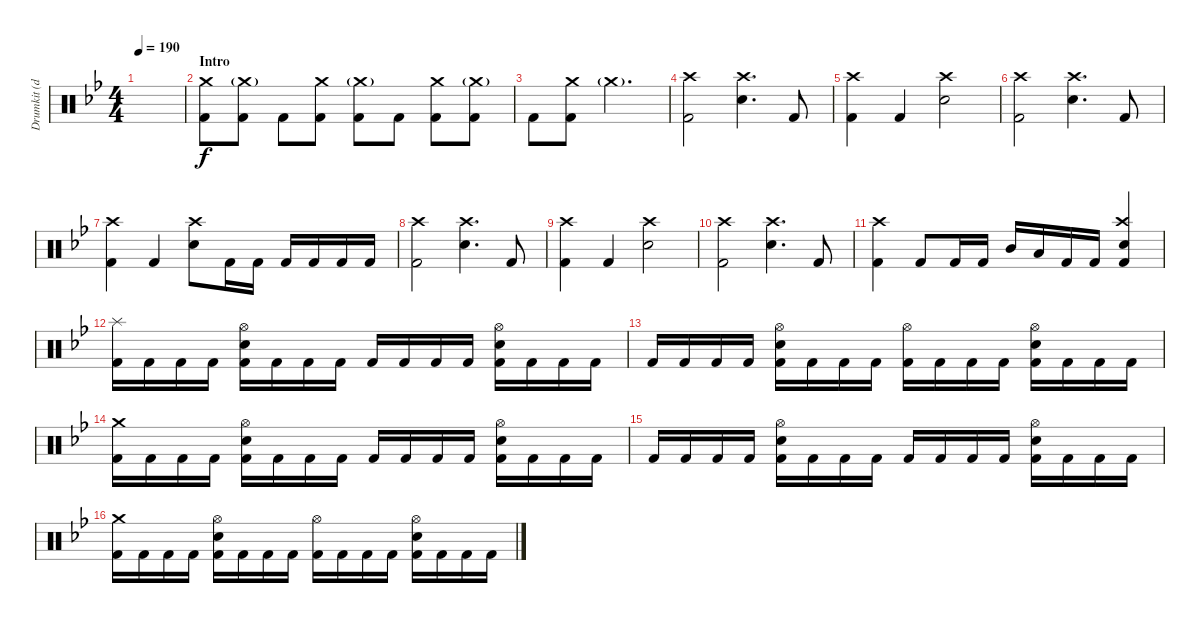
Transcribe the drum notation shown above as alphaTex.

\track ("Drumkit (don't unmute)" "Drumkit (d") {instrument percussion}
\staff {score}
\articulation defaults
\ts (4 4)
\tempo 190
\clef neutral
\ks bb
|
\section ("" "Intro")
("Kick (hit) 2" "Crash medium (hit)").8 ("Kick (hit) 2" "Crash medium (hit)"{g}).8 "Kick (hit) 2".8 ("Kick (hit) 2" "Crash medium (hit)").8 ("Kick (hit) 2" "Crash medium (hit)"{g}).8 "Kick (hit) 2".8 ("Kick (hit) 2" "Crash medium (hit)").8 ("Kick (hit) 2" "Crash medium (hit)"{g}).8 |
"Kick (hit) 2".8 ("Kick (hit) 2" "Crash medium (hit)").8 "Crash medium (hit)"{g}.2{d} |
("Kick (hit) 2" "Crash high (hit)").2 ("Snare (hit) 2" "Crash high (hit)").4{d} "Kick (hit) 2".8 |
("Kick (hit) 2" "Crash high (hit)").4 "Kick (hit) 2".4 ("Snare (hit) 2" "Crash high (hit)").2 |
("Kick (hit) 2" "Crash high (hit)").2 ("Snare (hit) 2" "Crash high (hit)").4{d} "Kick (hit) 2".8 |
("Kick (hit) 2" "Crash high (hit)").4 "Kick (hit) 2".4 ("Snare (hit) 2" "Crash high (hit)").8 "Kick (hit) 2".16 "Kick (hit) 2".16 "Kick (hit) 2".16 "Kick (hit) 2".16 "Kick (hit) 2".16 "Kick (hit) 2".16 |
("Kick (hit) 2" "Crash high (hit)").2 ("Snare (hit) 2" "Crash high (hit)").4{d} "Kick (hit) 2".8 |
("Kick (hit) 2" "Crash high (hit)").4 "Kick (hit) 2".4 ("Snare (hit) 2" "Crash high (hit)").2 |
("Kick (hit) 2" "Crash high (hit)").2 ("Snare (hit) 2" "Crash high (hit)").4{d} "Kick (hit) 2".8 |
("Kick (hit) 2" "Crash high (hit)").4 "Kick (hit) 2".8 "Kick (hit) 2".16 "Kick (hit) 2".16 "Mid Tom (hit)".16 "Low Tom (hit)".16 "Kick (hit) 2".16 "Kick (hit) 2".16 ("Kick (hit) 2" "Snare (hit) 2" "Crash high (hit)").4 |
("Kick (hit) 2" "Splash (hit)").16 "Kick (hit) 2".16 "Kick (hit) 2".16 "Kick (hit) 2".16 ("Kick (hit) 2" "Snare (hit) 2" "Hi-Hat (open)").16 "Kick (hit) 2".16 "Kick (hit) 2".16 "Kick (hit) 2".16 "Kick (hit) 2".16 "Kick (hit) 2".16 "Kick (hit) 2".16 "Kick (hit) 2".16 ("Kick (hit) 2" "Hi-Hat (open)" "Snare (hit) 2").16 "Kick (hit) 2".16 "Kick (hit) 2".16 "Kick (hit) 2".16 |
"Kick (hit) 2".16 "Kick (hit) 2".16 "Kick (hit) 2".16 "Kick (hit) 2".16 ("Kick (hit) 2" "Snare (hit) 2" "Hi-Hat (open)").16 "Kick (hit) 2".16 "Kick (hit) 2".16 "Kick (hit) 2".16 ("Kick (hit) 2" "Hi-Hat (open)").16 "Kick (hit) 2".16 "Kick (hit) 2".16 "Kick (hit) 2".16 ("Kick (hit) 2" "Hi-Hat (open)" "Snare (hit) 2").16 "Kick (hit) 2".16 "Kick (hit) 2".16 "Kick (hit) 2".16 |
("Kick (hit) 2" "Crash medium (hit)").16 "Kick (hit) 2".16 "Kick (hit) 2".16 "Kick (hit) 2".16 ("Kick (hit) 2" "Snare (hit) 2" "Hi-Hat (open)").16 "Kick (hit) 2".16 "Kick (hit) 2".16 "Kick (hit) 2".16 "Kick (hit) 2".16 "Kick (hit) 2".16 "Kick (hit) 2".16 "Kick (hit) 2".16 ("Kick (hit) 2" "Hi-Hat (open)" "Snare (hit) 2").16 "Kick (hit) 2".16 "Kick (hit) 2".16 "Kick (hit) 2".16 |
"Kick (hit) 2".16 "Kick (hit) 2".16 "Kick (hit) 2".16 "Kick (hit) 2".16 ("Kick (hit) 2" "Snare (hit) 2" "Hi-Hat (open)").16 "Kick (hit) 2".16 "Kick (hit) 2".16 "Kick (hit) 2".16 "Kick (hit) 2".16 "Kick (hit) 2".16 "Kick (hit) 2".16 "Kick (hit) 2".16 ("Kick (hit) 2" "Hi-Hat (open)" "Snare (hit) 2").16 "Kick (hit) 2".16 "Kick (hit) 2".16 "Kick (hit) 2".16 |
("Kick (hit) 2" "Crash medium (hit)").16 "Kick (hit) 2".16 "Kick (hit) 2".16 "Kick (hit) 2".16 ("Kick (hit) 2" "Snare (hit) 2" "Hi-Hat (open)").16 "Kick (hit) 2".16 "Kick (hit) 2".16 "Kick (hit) 2".16 ("Kick (hit) 2" "Hi-Hat (open)").16 "Kick (hit) 2".16 "Kick (hit) 2".16 "Kick (hit) 2".16 ("Kick (hit) 2" "Hi-Hat (open)" "Snare (hit) 2").16 "Kick (hit) 2".16 "Kick (hit) 2".16 "Kick (hit) 2".16
